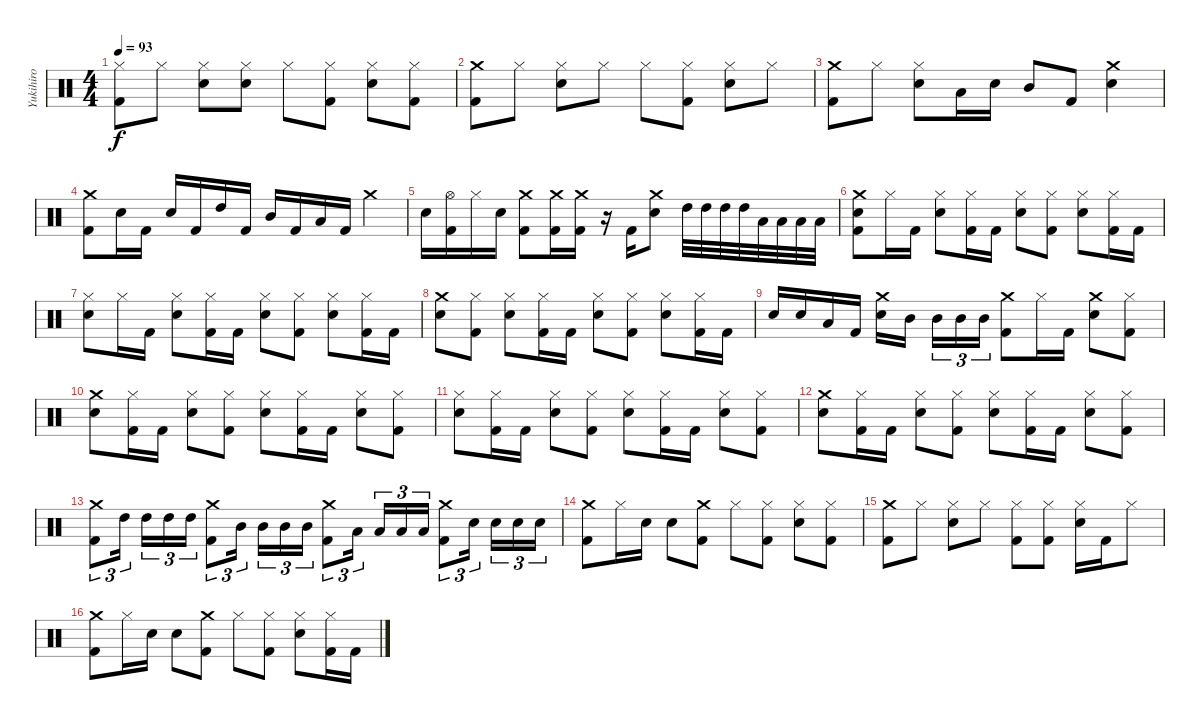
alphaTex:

\track ("Yukihiro" "Yukihiro") {instrument percussion}
\staff {score}
\articulation defaults
\ts (4 4)
\tempo 93
\clef neutral
\ks c
("Hi-Hat (closed)" "Kick (hit) 2").8{dy f} "Hi-Hat (closed)".8 ("Hi-Hat (closed)" "Snare (hit) 2").8 ("Hi-Hat (closed)" "Snare (hit) 2").8 "Hi-Hat (closed)".8 ("Hi-Hat (closed)" "Kick (hit) 2").8 ("Hi-Hat (closed)" "Snare (hit) 2").8 ("Hi-Hat (closed)" "Kick (hit) 2").8 |
("Crash medium (hit)" "Kick (hit) 2").8 "Hi-Hat (closed)".8 ("Hi-Hat (closed)" "Snare (hit) 2").8 "Hi-Hat (closed)".8 "Hi-Hat (closed)".8 ("Hi-Hat (closed)" "Kick (hit) 2").8 ("Hi-Hat (closed)" "Snare (hit) 2").8 "Hi-Hat (closed)".8 |
("Crash medium (hit)" "Kick (hit) 2").8 "Hi-Hat (closed)".8 ("Hi-Hat (closed)" "Snare (hit) 2").8 "Low Tom (hit)".16 "Snare (hit) 2".16 "Mid Tom (hit)".8 "Kick (hit) 2".8 ("Crash medium (hit)" "Snare (hit) 2").4 |
("Crash medium (hit)" "Kick (hit) 2").8 "Snare (hit) 2".16 "Kick (hit) 2".16 "Snare (hit) 2".16 "Kick (hit) 2".16 "High Tom (hit)".16 "Kick (hit) 2".16 "Mid Tom (hit)".16 "Kick (hit) 2".16 "Low Tom (hit)".16 "Kick (hit) 2".16 "Crash medium (hit)".4 |
"Snare (hit) 2".16 ("Hi-Hat (open)" "Kick (hit) 2").16 "Hi-Hat (closed)".16 "Snare (hit) 2".16 ("Crash medium (hit)" "Kick (hit) 2").8 ("Crash medium (hit)" "Kick (hit) 2").16 ("Crash medium (hit)" "Kick (hit) 2").16 r.16 "Kick (hit) 2".16 ("Crash medium (hit)" "Snare (hit) 2").8 "High Tom (hit)".32 "High Tom (hit)".32 "High Tom (hit)".32 "High Tom (hit)".32 "Low Tom (hit)".32 "Low Tom (hit)".32 "Low Tom (hit)".32 "Low Tom (hit)".32 |
("Crash medium (hit)" "Snare (hit) 2" "Kick (hit) 2").8 "Hi-Hat (closed)".16 "Kick (hit) 2".16 ("Hi-Hat (closed)" "Snare (hit) 2").8 ("Hi-Hat (closed)" "Kick (hit) 2").16 "Kick (hit) 2".16 ("Hi-Hat (closed)" "Snare (hit) 2").8 ("Hi-Hat (closed)" "Kick (hit) 2").8 ("Hi-Hat (closed)" "Snare (hit) 2").8 ("Hi-Hat (closed)" "Kick (hit) 2").16 "Kick (hit) 2".16 |
("Hi-Hat (closed)" "Snare (hit) 2").8 "Hi-Hat (closed)".16 "Kick (hit) 2".16 ("Hi-Hat (closed)" "Snare (hit) 2").8 ("Hi-Hat (closed)" "Kick (hit) 2").16 "Kick (hit) 2".16 ("Hi-Hat (closed)" "Snare (hit) 2").8 ("Hi-Hat (closed)" "Kick (hit) 2").8 ("Hi-Hat (closed)" "Snare (hit) 2").8 ("Hi-Hat (closed)" "Kick (hit) 2").16 "Kick (hit) 2".16 |
("Crash medium (hit)" "Snare (hit) 2").8 ("Hi-Hat (closed)" "Kick (hit) 2").8 ("Hi-Hat (closed)" "Snare (hit) 2").8 ("Hi-Hat (closed)" "Kick (hit) 2").16 "Kick (hit) 2".16 ("Hi-Hat (closed)" "Snare (hit) 2").8 ("Hi-Hat (closed)" "Kick (hit) 2").8 ("Hi-Hat (closed)" "Snare (hit) 2").8 ("Hi-Hat (closed)" "Kick (hit) 2").16 "Kick (hit) 2".16 |
"Snare (hit) 2".16 "Snare (hit) 2".16 "Low Tom (hit)".16 "Kick (hit) 2".16 ("Crash medium (hit)" "Snare (hit) 2").16 "Mid Tom (hit)".16 "Mid Tom (hit)".16{tu (3 2)} "Mid Tom (hit)".16{tu (3 2)} "Mid Tom (hit)".16{tu (3 2)} ("Crash medium (hit)" "Kick (hit) 2").8 "Hi-Hat (closed)".16 "Kick (hit) 2".16 ("Crash medium (hit)" "Snare (hit) 2").8 ("Hi-Hat (closed)" "Kick (hit) 2").8 |
("Crash medium (hit)" "Snare (hit) 2").8 ("Hi-Hat (closed)" "Kick (hit) 2").16 "Kick (hit) 2".16 ("Hi-Hat (closed)" "Snare (hit) 2").8 ("Hi-Hat (closed)" "Kick (hit) 2").8 ("Hi-Hat (closed)" "Snare (hit) 2").8 ("Hi-Hat (closed)" "Kick (hit) 2").16 "Kick (hit) 2".16 ("Hi-Hat (closed)" "Snare (hit) 2").8 ("Hi-Hat (closed)" "Kick (hit) 2").8 |
("Hi-Hat (closed)" "Snare (hit) 2").8 ("Hi-Hat (closed)" "Kick (hit) 2").16 "Kick (hit) 2".16 ("Hi-Hat (closed)" "Snare (hit) 2").8 ("Hi-Hat (closed)" "Kick (hit) 2").8 ("Hi-Hat (closed)" "Snare (hit) 2").8 ("Hi-Hat (closed)" "Kick (hit) 2").16 "Kick (hit) 2".16 ("Hi-Hat (closed)" "Snare (hit) 2").8 ("Hi-Hat (closed)" "Kick (hit) 2").8 |
("Crash medium (hit)" "Snare (hit) 2").8 ("Hi-Hat (closed)" "Kick (hit) 2").16 "Kick (hit) 2".16 ("Hi-Hat (closed)" "Snare (hit) 2").8 ("Hi-Hat (closed)" "Kick (hit) 2").8 ("Hi-Hat (closed)" "Snare (hit) 2").8 ("Hi-Hat (closed)" "Kick (hit) 2").16 "Kick (hit) 2".16 ("Hi-Hat (closed)" "Snare (hit) 2").8 ("Hi-Hat (closed)" "Kick (hit) 2").8 |
("Crash medium (hit)" "Kick (hit) 2").8{tu (3 2)} "High Tom (hit)".16{tu (3 2)} "High Tom (hit)".16{tu (3 2)} "High Tom (hit)".16{tu (3 2)} "High Tom (hit)".16{tu (3 2)} ("Crash medium (hit)" "Kick (hit) 2").8{tu (3 2)} "Mid Tom (hit)".16{tu (3 2)} "Mid Tom (hit)".16{tu (3 2)} "Mid Tom (hit)".16{tu (3 2)} "Mid Tom (hit)".16{tu (3 2)} ("Crash medium (hit)" "Kick (hit) 2").8{tu (3 2)} "Low Tom (hit)".16{tu (3 2)} "Low Tom (hit)".16{tu (3 2)} "Low Tom (hit)".16{tu (3 2)} "Low Tom (hit)".16{tu (3 2)} ("Crash medium (hit)" "Kick (hit) 2").8{tu (3 2)} "Snare (hit) 2".16{tu (3 2)} "Snare (hit) 2".16{tu (3 2)} "Snare (hit) 2".16{tu (3 2)} "Snare (hit) 2".16{tu (3 2)} |
("Crash medium (hit)" "Kick (hit) 2").8 "Hi-Hat (closed)".16 "Snare (hit) 2".16 "Snare (hit) 2".8 ("Crash medium (hit)" "Kick (hit) 2").8 "Hi-Hat (closed)".8 ("Hi-Hat (closed)" "Kick (hit) 2").8 ("Hi-Hat (closed)" "Snare (hit) 2").8 ("Hi-Hat (closed)" "Kick (hit) 2").8 |
("Crash medium (hit)" "Kick (hit) 2").8 "Hi-Hat (closed)".8 ("Hi-Hat (closed)" "Snare (hit) 2").8 "Hi-Hat (closed)".8 ("Hi-Hat (closed)" "Kick (hit) 2").8 ("Hi-Hat (closed)" "Kick (hit) 2").8 ("Hi-Hat (closed)" "Snare (hit) 2").16 "Kick (hit) 2".16 "Hi-Hat (closed)".8 |
("Crash medium (hit)" "Kick (hit) 2").8 "Hi-Hat (closed)".16 "Snare (hit) 2".16 "Snare (hit) 2".8 ("Crash medium (hit)" "Kick (hit) 2").8 "Hi-Hat (closed)".8 ("Hi-Hat (closed)" "Kick (hit) 2").8 ("Hi-Hat (closed)" "Snare (hit) 2").8 ("Hi-Hat (closed)" "Kick (hit) 2").16 "Kick (hit) 2".16
